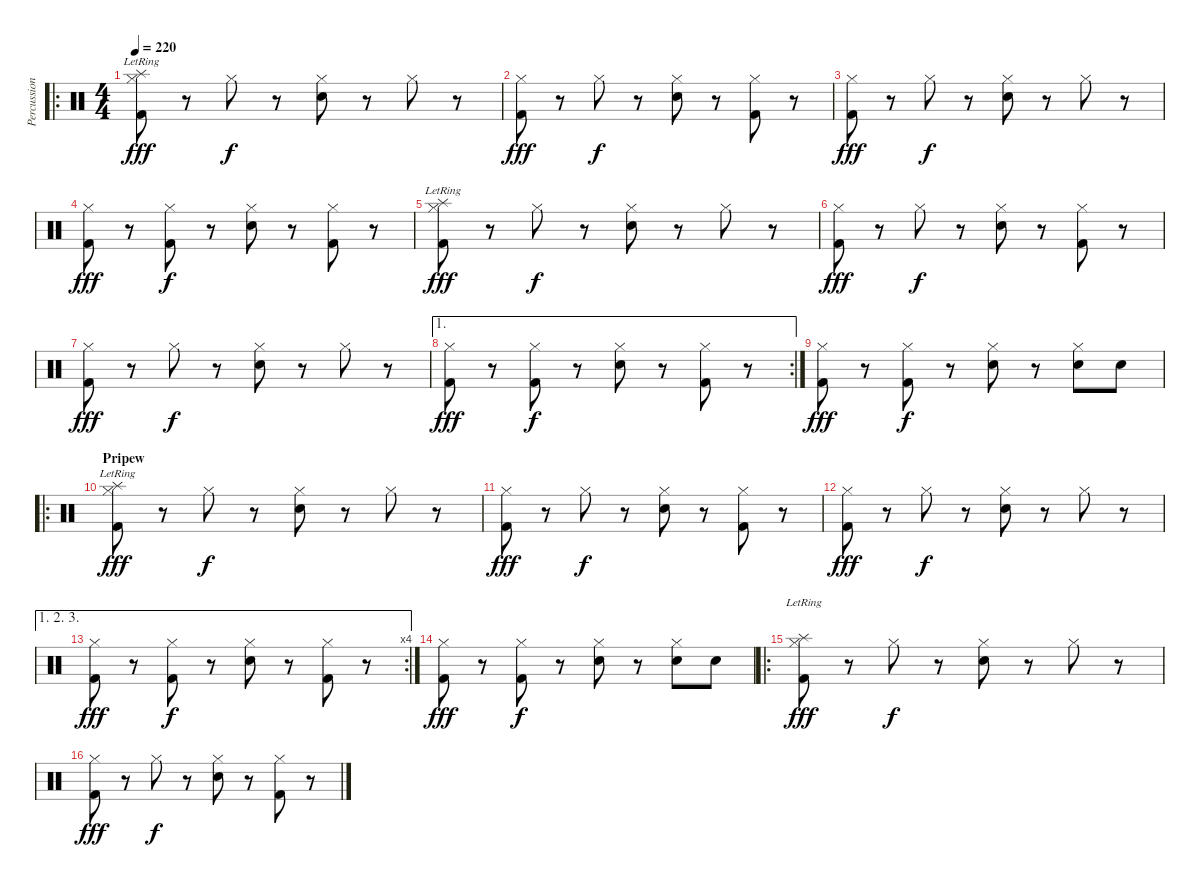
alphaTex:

\track ("Percussion" "Percussion") {instrument percussion}
\staff {score}
\articulation defaults
\ro
\ts (4 4)
\tempo 220
\clef neutral
\ks c
("Hi-Hat (closed)" "Splash (hit)"{lr} "Kick (hit) 2").8{dy fff} r.8 "Hi-Hat (closed)".8{dy f} r.8 ("Hi-Hat (closed)" "Snare (hit) 2").8 r.8 "Hi-Hat (closed)".8 r.8 |
("Hi-Hat (closed)" "Kick (hit) 2").8{dy fff} r.8 "Hi-Hat (closed)".8{dy f} r.8 ("Hi-Hat (closed)" "Snare (hit) 2").8 r.8 ("Hi-Hat (closed)" "Kick (hit) 2").8 r.8 |
("Hi-Hat (closed)" "Kick (hit) 2").8{dy fff} r.8 "Hi-Hat (closed)".8{dy f} r.8 ("Hi-Hat (closed)" "Snare (hit) 2").8 r.8 "Hi-Hat (closed)".8 r.8 |
("Hi-Hat (closed)" "Kick (hit) 2").8{dy fff} r.8 ("Hi-Hat (closed)" "Kick (hit) 2").8{dy f} r.8 ("Hi-Hat (closed)" "Snare (hit) 2").8 r.8 ("Hi-Hat (closed)" "Kick (hit) 2").8 r.8 |
("Hi-Hat (closed)" "Splash (hit)"{lr} "Kick (hit) 2").8{dy fff} r.8 "Hi-Hat (closed)".8{dy f} r.8 ("Hi-Hat (closed)" "Snare (hit) 2").8 r.8 "Hi-Hat (closed)".8 r.8 |
("Hi-Hat (closed)" "Kick (hit) 2").8{dy fff} r.8 "Hi-Hat (closed)".8{dy f} r.8 ("Hi-Hat (closed)" "Snare (hit) 2").8 r.8 ("Hi-Hat (closed)" "Kick (hit) 2").8 r.8 |
("Hi-Hat (closed)" "Kick (hit) 2").8{dy fff} r.8 "Hi-Hat (closed)".8{dy f} r.8 ("Hi-Hat (closed)" "Snare (hit) 2").8 r.8 "Hi-Hat (closed)".8 r.8 |
\ae 1
\rc 2
("Hi-Hat (closed)" "Kick (hit) 2").8{dy fff} r.8 ("Hi-Hat (closed)" "Kick (hit) 2").8{dy f} r.8 ("Hi-Hat (closed)" "Snare (hit) 2").8 r.8 ("Hi-Hat (closed)" "Kick (hit) 2").8 r.8 |
("Hi-Hat (closed)" "Kick (hit) 2").8{dy fff} r.8 ("Hi-Hat (closed)" "Kick (hit) 2").8{dy f} r.8 ("Hi-Hat (closed)" "Snare (hit) 2").8 r.8 ("Hi-Hat (closed)" "Snare (hit) 2").8 "Snare (hit) 2".8 |
\ro
\section ("" "Pripew")
("Hi-Hat (closed)" "Splash (hit)"{lr} "Kick (hit) 2").8{dy fff} r.8 "Hi-Hat (closed)".8{dy f} r.8 ("Hi-Hat (closed)" "Snare (hit) 2").8 r.8 "Hi-Hat (closed)".8 r.8 |
("Hi-Hat (closed)" "Kick (hit) 2").8{dy fff} r.8 "Hi-Hat (closed)".8{dy f} r.8 ("Hi-Hat (closed)" "Snare (hit) 2").8 r.8 ("Hi-Hat (closed)" "Kick (hit) 2").8 r.8 |
("Hi-Hat (closed)" "Kick (hit) 2").8{dy fff} r.8 "Hi-Hat (closed)".8{dy f} r.8 ("Hi-Hat (closed)" "Snare (hit) 2").8 r.8 "Hi-Hat (closed)".8 r.8 |
\ae (1 2 3)
\rc 4
("Hi-Hat (closed)" "Kick (hit) 2").8{dy fff} r.8 ("Hi-Hat (closed)" "Kick (hit) 2").8{dy f} r.8 ("Hi-Hat (closed)" "Snare (hit) 2").8 r.8 ("Hi-Hat (closed)" "Kick (hit) 2").8 r.8 |
("Hi-Hat (closed)" "Kick (hit) 2").8{dy fff} r.8 ("Hi-Hat (closed)" "Kick (hit) 2").8{dy f} r.8 ("Hi-Hat (closed)" "Snare (hit) 2").8 r.8 ("Hi-Hat (closed)" "Snare (hit) 2").8 "Snare (hit) 2".8 |
\ro
("Hi-Hat (closed)" "Splash (hit)"{lr} "Kick (hit) 2").8{dy fff} r.8 "Hi-Hat (closed)".8{dy f} r.8 ("Hi-Hat (closed)" "Snare (hit) 2").8 r.8 "Hi-Hat (closed)".8 r.8 |
("Hi-Hat (closed)" "Kick (hit) 2").8{dy fff} r.8 "Hi-Hat (closed)".8{dy f} r.8 ("Hi-Hat (closed)" "Snare (hit) 2").8 r.8 ("Hi-Hat (closed)" "Kick (hit) 2").8 r.8
